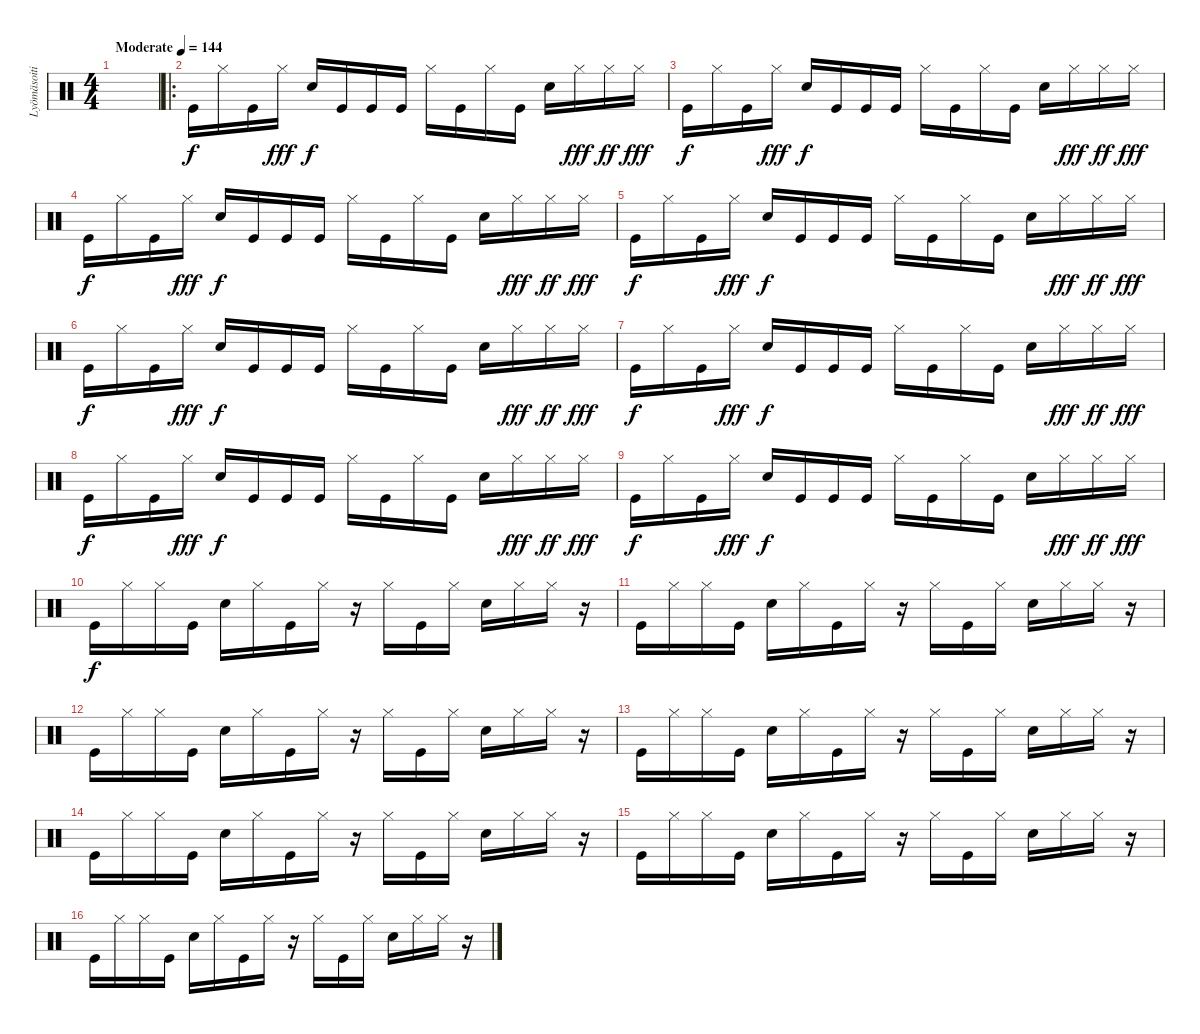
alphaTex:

\track ("Lyömäsoitin" "Lyömäsoiti") {instrument percussion}
\staff {score}
\articulation defaults
\ts (4 4)
\tempo (144 "Moderate")
\clef neutral
\ks c
|
\ro "Kick (hit)".16 "Hi-Hat (closed)".16 "Kick (hit)".16 "Hi-Hat (closed)".16{dy fff} "Snare (hit) 2".16{dy f} "Kick (hit)".16 "Kick (hit)".16 "Kick (hit)".16 "Hi-Hat (closed)".16 "Kick (hit)".16 "Hi-Hat (closed)".16 "Kick (hit)".16 "Snare (hit) 2".16 "Hi-Hat (closed)".16{dy fff} "Hi-Hat (closed)".16{dy ff} "Hi-Hat (closed)".16{dy fff}
|
"Kick (hit)".16{dy f} "Hi-Hat (closed)".16 "Kick (hit)".16 "Hi-Hat (closed)".16{dy fff} "Snare (hit) 2".16{dy f} "Kick (hit)".16 "Kick (hit)".16 "Kick (hit)".16 "Hi-Hat (closed)".16 "Kick (hit)".16 "Hi-Hat (closed)".16 "Kick (hit)".16 "Snare (hit) 2".16 "Hi-Hat (closed)".16{dy fff} "Hi-Hat (closed)".16{dy ff} "Hi-Hat (closed)".16{dy fff} |
"Kick (hit)".16{dy f} "Hi-Hat (closed)".16 "Kick (hit)".16 "Hi-Hat (closed)".16{dy fff} "Snare (hit) 2".16{dy f} "Kick (hit)".16 "Kick (hit)".16 "Kick (hit)".16 "Hi-Hat (closed)".16 "Kick (hit)".16 "Hi-Hat (closed)".16 "Kick (hit)".16 "Snare (hit) 2".16 "Hi-Hat (closed)".16{dy fff} "Hi-Hat (closed)".16{dy ff} "Hi-Hat (closed)".16{dy fff} |
"Kick (hit)".16{dy f} "Hi-Hat (closed)".16 "Kick (hit)".16 "Hi-Hat (closed)".16{dy fff} "Snare (hit) 2".16{dy f} "Kick (hit)".16 "Kick (hit)".16 "Kick (hit)".16 "Hi-Hat (closed)".16 "Kick (hit)".16 "Hi-Hat (closed)".16 "Kick (hit)".16 "Snare (hit) 2".16 "Hi-Hat (closed)".16{dy fff} "Hi-Hat (closed)".16{dy ff} "Hi-Hat (closed)".16{dy fff} |
"Kick (hit)".16{dy f} "Hi-Hat (closed)".16 "Kick (hit)".16 "Hi-Hat (closed)".16{dy fff} "Snare (hit) 2".16{dy f} "Kick (hit)".16 "Kick (hit)".16 "Kick (hit)".16 "Hi-Hat (closed)".16 "Kick (hit)".16 "Hi-Hat (closed)".16 "Kick (hit)".16 "Snare (hit) 2".16 "Hi-Hat (closed)".16{dy fff} "Hi-Hat (closed)".16{dy ff} "Hi-Hat (closed)".16{dy fff} |
"Kick (hit)".16{dy f} "Hi-Hat (closed)".16 "Kick (hit)".16 "Hi-Hat (closed)".16{dy fff} "Snare (hit) 2".16{dy f} "Kick (hit)".16 "Kick (hit)".16 "Kick (hit)".16 "Hi-Hat (closed)".16 "Kick (hit)".16 "Hi-Hat (closed)".16 "Kick (hit)".16 "Snare (hit) 2".16 "Hi-Hat (closed)".16{dy fff} "Hi-Hat (closed)".16{dy ff} "Hi-Hat (closed)".16{dy fff} |
"Kick (hit)".16{dy f} "Hi-Hat (closed)".16 "Kick (hit)".16 "Hi-Hat (closed)".16{dy fff} "Snare (hit) 2".16{dy f} "Kick (hit)".16 "Kick (hit)".16 "Kick (hit)".16 "Hi-Hat (closed)".16 "Kick (hit)".16 "Hi-Hat (closed)".16 "Kick (hit)".16 "Snare (hit) 2".16 "Hi-Hat (closed)".16{dy fff} "Hi-Hat (closed)".16{dy ff} "Hi-Hat (closed)".16{dy fff} |
"Kick (hit)".16{dy f} "Hi-Hat (closed)".16 "Kick (hit)".16 "Hi-Hat (closed)".16{dy fff} "Snare (hit) 2".16{dy f} "Kick (hit)".16 "Kick (hit)".16 "Kick (hit)".16 "Hi-Hat (closed)".16 "Kick (hit)".16 "Hi-Hat (closed)".16 "Kick (hit)".16 "Snare (hit) 2".16 "Hi-Hat (closed)".16{dy fff} "Hi-Hat (closed)".16{dy ff} "Hi-Hat (closed)".16{dy fff} |
"Kick (hit)".16{dy f} "Hi-Hat (closed)".16 "Hi-Hat (closed)".16 "Kick (hit)".16 "Snare (hit) 2".16 "Hi-Hat (closed)".16 "Kick (hit)".16 "Hi-Hat (closed)".16 r.16 "Hi-Hat (closed)".16 "Kick (hit)".16 "Hi-Hat (closed)".16 "Snare (hit) 2".16 "Hi-Hat (closed)".16 "Hi-Hat (closed)".16 r.16 |
"Kick (hit)".16 "Hi-Hat (closed)".16 "Hi-Hat (closed)".16 "Kick (hit)".16 "Snare (hit) 2".16 "Hi-Hat (closed)".16 "Kick (hit)".16 "Hi-Hat (closed)".16 r.16 "Hi-Hat (closed)".16 "Kick (hit)".16 "Hi-Hat (closed)".16 "Snare (hit) 2".16 "Hi-Hat (closed)".16 "Hi-Hat (closed)".16 r.16 |
"Kick (hit)".16 "Hi-Hat (closed)".16 "Hi-Hat (closed)".16 "Kick (hit)".16 "Snare (hit) 2".16 "Hi-Hat (closed)".16 "Kick (hit)".16 "Hi-Hat (closed)".16 r.16 "Hi-Hat (closed)".16 "Kick (hit)".16 "Hi-Hat (closed)".16 "Snare (hit) 2".16 "Hi-Hat (closed)".16 "Hi-Hat (closed)".16 r.16 |
"Kick (hit)".16 "Hi-Hat (closed)".16 "Hi-Hat (closed)".16 "Kick (hit)".16 "Snare (hit) 2".16 "Hi-Hat (closed)".16 "Kick (hit)".16 "Hi-Hat (closed)".16 r.16 "Hi-Hat (closed)".16 "Kick (hit)".16 "Hi-Hat (closed)".16 "Snare (hit) 2".16 "Hi-Hat (closed)".16 "Hi-Hat (closed)".16 r.16 |
"Kick (hit)".16 "Hi-Hat (closed)".16 "Hi-Hat (closed)".16 "Kick (hit)".16 "Snare (hit) 2".16 "Hi-Hat (closed)".16 "Kick (hit)".16 "Hi-Hat (closed)".16 r.16 "Hi-Hat (closed)".16 "Kick (hit)".16 "Hi-Hat (closed)".16 "Snare (hit) 2".16 "Hi-Hat (closed)".16 "Hi-Hat (closed)".16 r.16 |
"Kick (hit)".16 "Hi-Hat (closed)".16 "Hi-Hat (closed)".16 "Kick (hit)".16 "Snare (hit) 2".16 "Hi-Hat (closed)".16 "Kick (hit)".16 "Hi-Hat (closed)".16 r.16 "Hi-Hat (closed)".16 "Kick (hit)".16 "Hi-Hat (closed)".16 "Snare (hit) 2".16 "Hi-Hat (closed)".16 "Hi-Hat (closed)".16 r.16 |
"Kick (hit)".16 "Hi-Hat (closed)".16 "Hi-Hat (closed)".16 "Kick (hit)".16 "Snare (hit) 2".16 "Hi-Hat (closed)".16 "Kick (hit)".16 "Hi-Hat (closed)".16 r.16 "Hi-Hat (closed)".16 "Kick (hit)".16 "Hi-Hat (closed)".16 "Snare (hit) 2".16 "Hi-Hat (closed)".16 "Hi-Hat (closed)".16 r.16
